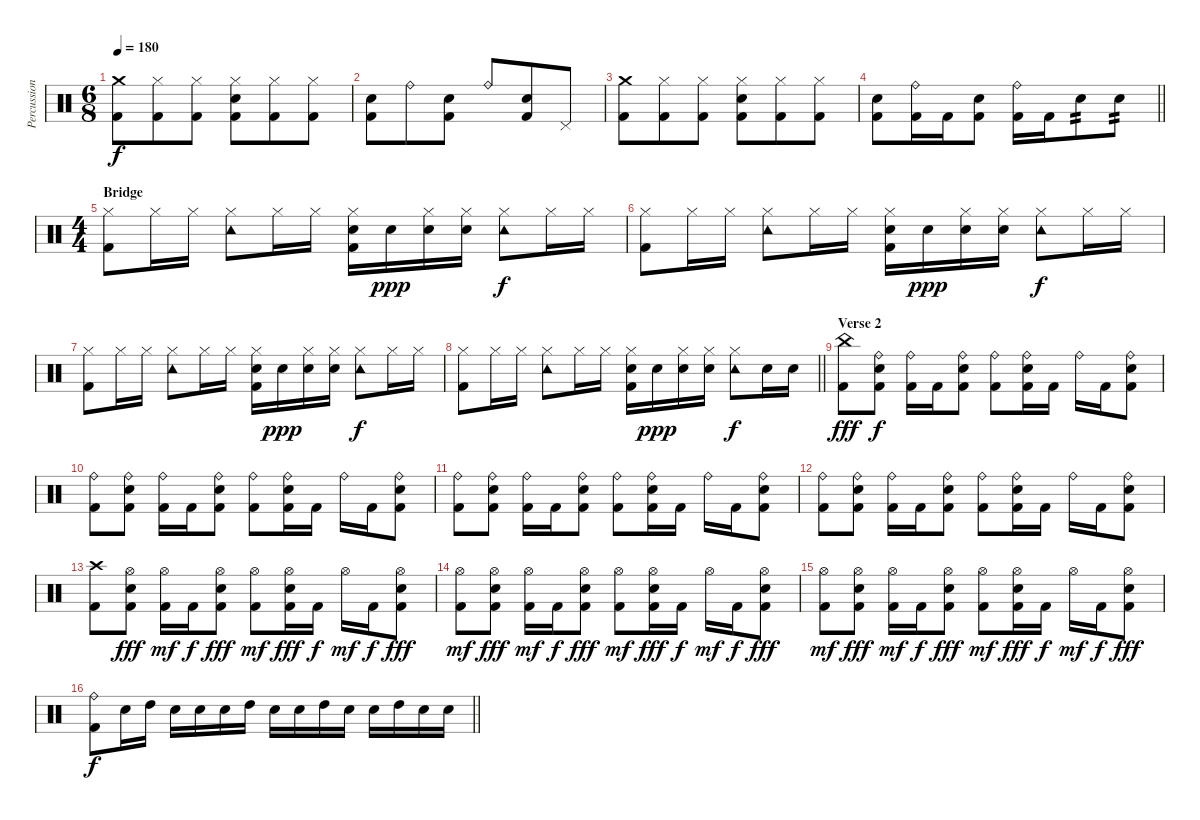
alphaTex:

\track ("Percussion" "Percussion") {instrument percussion}
\staff {score}
\articulation defaults
\ts (6 8)
\tempo 180
\clef neutral
\ks c
("Crash medium (hit)" "Kick (hit) 2").8{dy f} ("Hi-Hat (closed)" "Kick (hit) 2").8 ("Hi-Hat (closed)" "Kick (hit) 2").8 ("Hi-Hat (closed)" "Electric Snare (hit)" "Kick (hit) 2").8 ("Hi-Hat (closed)" "Kick (hit) 2").8 ("Hi-Hat (closed)" "Kick (hit) 2").8 |
("Hand Clap (hit)" "Kick (hit) 2").8 "Ride (bell)".8 ("Hand Clap (hit)" "Kick (hit) 2").8 "Ride (bell)".8 ("Hand Clap (hit)" "Kick (hit) 2").8 "Pedal Hi-Hat (hit)".8 |
("Crash medium (hit)" "Kick (hit) 2").8 ("Hi-Hat (closed)" "Kick (hit) 2").8 ("Hi-Hat (closed)" "Kick (hit) 2").8 ("Hi-Hat (closed)" "Electric Snare (hit)" "Kick (hit) 2").8 ("Hi-Hat (closed)" "Kick (hit) 2").8 ("Hi-Hat (closed)" "Kick (hit) 2").8 |
\barLineRight lightlight
("Hand Clap (hit)" "Kick (hit) 2").8 ("Ride (bell)" "Kick (hit) 2").16 "Kick (hit) 2".16 ("Hand Clap (hit)" "Kick (hit) 2").8 ("Ride (bell)" "Kick (hit) 2").16 "Kick (hit) 2".16 "Electric Snare (hit)".8{tp 2} "Electric Snare (hit)".8{tp 2} |
\ts (4 4)
\section ("" "Bridge")
("Hi-Hat (closed)" "Kick (hit) 2").8 "Hi-Hat (closed)".16 "Hi-Hat (closed)".16 ("Hi-Hat (closed)" "Tambourine (hit)").8 "Hi-Hat (closed)".16 "Hi-Hat (closed)".16 ("Hi-Hat (closed)" "Electric Snare (hit)" "Kick (hit) 2").16 "Electric Snare (hit)".16{dy ppp} ("Hi-Hat (closed)" "Electric Snare (hit)").16 ("Hi-Hat (closed)" "Electric Snare (hit)").16 ("Hi-Hat (closed)" "Tambourine (hit)").8{dy f} "Hi-Hat (closed)".16 "Hi-Hat (closed)".16 |
("Hi-Hat (closed)" "Kick (hit) 2").8 "Hi-Hat (closed)".16 "Hi-Hat (closed)".16 ("Hi-Hat (closed)" "Tambourine (hit)").8 "Hi-Hat (closed)".16 "Hi-Hat (closed)".16 ("Hi-Hat (closed)" "Electric Snare (hit)" "Kick (hit) 2").16 "Electric Snare (hit)".16{dy ppp} ("Hi-Hat (closed)" "Electric Snare (hit)").16 ("Hi-Hat (closed)" "Electric Snare (hit)").16 ("Hi-Hat (closed)" "Tambourine (hit)").8{dy f} "Hi-Hat (closed)".16 "Hi-Hat (closed)".16 |
("Hi-Hat (closed)" "Kick (hit) 2").8 "Hi-Hat (closed)".16 "Hi-Hat (closed)".16 ("Hi-Hat (closed)" "Tambourine (hit)").8 "Hi-Hat (closed)".16 "Hi-Hat (closed)".16 ("Hi-Hat (closed)" "Electric Snare (hit)" "Kick (hit) 2").16 "Electric Snare (hit)".16{dy ppp} ("Hi-Hat (closed)" "Electric Snare (hit)").16 ("Hi-Hat (closed)" "Electric Snare (hit)").16 ("Hi-Hat (closed)" "Tambourine (hit)").8{dy f} "Hi-Hat (closed)".16 "Hi-Hat (closed)".16 |
\barLineRight lightlight
("Hi-Hat (closed)" "Kick (hit) 2").8 "Hi-Hat (closed)".16 "Hi-Hat (closed)".16 ("Hi-Hat (closed)" "Tambourine (hit)").8 "Hi-Hat (closed)".16 "Hi-Hat (closed)".16 ("Hi-Hat (closed)" "Electric Snare (hit)" "Kick (hit) 2").16 "Electric Snare (hit)".16{dy ppp} ("Hi-Hat (closed)" "Electric Snare (hit)").16 ("Hi-Hat (closed)" "Electric Snare (hit)").16 ("Hi-Hat (closed)" "Tambourine (hit)").8{dy f} "Electric Snare (hit)".16 "Electric Snare (hit)".16 |
\section ("" "Verse 2")
("China (hit)" "Kick (hit) 2").8{dy fff} ("Ride (bell)" "Electric Snare (hit)" "Kick (hit) 2").8{dy f} ("Ride (bell)" "Kick (hit) 2").16 "Kick (hit) 2".16 ("Ride (bell)" "Electric Snare (hit)" "Kick (hit) 2").8 ("Ride (bell)" "Kick (hit) 2").8 ("Ride (bell)" "Electric Snare (hit)" "Kick (hit) 2").16 "Kick (hit) 2".16 "Ride (bell)".16 "Kick (hit) 2".16 ("Ride (bell)" "Electric Snare (hit)" "Kick (hit) 2").8 |
("Ride (bell)" "Kick (hit) 2").8 ("Ride (bell)" "Electric Snare (hit)" "Kick (hit) 2").8 ("Ride (bell)" "Kick (hit) 2").16 "Kick (hit) 2".16 ("Ride (bell)" "Electric Snare (hit)" "Kick (hit) 2").8 ("Ride (bell)" "Kick (hit) 2").8 ("Ride (bell)" "Electric Snare (hit)" "Kick (hit) 2").16 "Kick (hit) 2".16 "Ride (bell)".16 "Kick (hit) 2".16 ("Ride (bell)" "Electric Snare (hit)" "Kick (hit) 2").8 |
("Ride (bell)" "Kick (hit) 2").8 ("Ride (bell)" "Electric Snare (hit)" "Kick (hit) 2").8 ("Ride (bell)" "Kick (hit) 2").16 "Kick (hit) 2".16 ("Ride (bell)" "Electric Snare (hit)" "Kick (hit) 2").8 ("Ride (bell)" "Kick (hit) 2").8 ("Ride (bell)" "Electric Snare (hit)" "Kick (hit) 2").16 "Kick (hit) 2".16 "Ride (bell)".16 "Kick (hit) 2".16 ("Ride (bell)" "Electric Snare (hit)" "Kick (hit) 2").8 |
("Ride (bell)" "Kick (hit) 2").8 ("Ride (bell)" "Electric Snare (hit)" "Kick (hit) 2").8 ("Ride (bell)" "Kick (hit) 2").16 "Kick (hit) 2".16 ("Ride (bell)" "Electric Snare (hit)" "Kick (hit) 2").8 ("Ride (bell)" "Kick (hit) 2").8 ("Ride (bell)" "Electric Snare (hit)" "Kick (hit) 2").16 "Kick (hit) 2".16 "Ride (bell)".16 "Kick (hit) 2".16 ("Ride (bell)" "Electric Snare (hit)" "Kick (hit) 2").8 |
("Crash high (hit)" "Kick (hit) 2").8 ("Hi-Hat (open)" "Electric Snare (hit)" "Kick (hit) 2").8{dy fff} ("Hi-Hat (open)" "Kick (hit) 2").16{dy mf} "Kick (hit) 2".16{dy f} ("Hi-Hat (open)" "Electric Snare (hit)" "Kick (hit) 2").8{dy fff} ("Hi-Hat (open)" "Kick (hit) 2").8{dy mf} ("Hi-Hat (open)" "Electric Snare (hit)" "Kick (hit) 2").16{dy fff} "Kick (hit) 2".16{dy f} "Hi-Hat (open)".16{dy mf} "Kick (hit) 2".16{dy f} ("Hi-Hat (open)" "Electric Snare (hit)" "Kick (hit) 2").8{dy fff} |
("Hi-Hat (open)" "Kick (hit) 2").8{dy mf} ("Hi-Hat (open)" "Electric Snare (hit)" "Kick (hit) 2").8{dy fff} ("Hi-Hat (open)" "Kick (hit) 2").16{dy mf} "Kick (hit) 2".16{dy f} ("Hi-Hat (open)" "Electric Snare (hit)" "Kick (hit) 2").8{dy fff} ("Hi-Hat (open)" "Kick (hit) 2").8{dy mf} ("Hi-Hat (open)" "Electric Snare (hit)" "Kick (hit) 2").16{dy fff} "Kick (hit) 2".16{dy f} "Hi-Hat (open)".16{dy mf} "Kick (hit) 2".16{dy f} ("Hi-Hat (open)" "Electric Snare (hit)" "Kick (hit) 2").8{dy fff} |
("Hi-Hat (open)" "Kick (hit) 2").8{dy mf} ("Hi-Hat (open)" "Electric Snare (hit)" "Kick (hit) 2").8{dy fff} ("Hi-Hat (open)" "Kick (hit) 2").16{dy mf} "Kick (hit) 2".16{dy f} ("Hi-Hat (open)" "Electric Snare (hit)" "Kick (hit) 2").8{dy fff} ("Hi-Hat (open)" "Kick (hit) 2").8{dy mf} ("Hi-Hat (open)" "Electric Snare (hit)" "Kick (hit) 2").16{dy fff} "Kick (hit) 2".16{dy f} "Hi-Hat (open)".16{dy mf} "Kick (hit) 2".16{dy f} ("Hi-Hat (open)" "Electric Snare (hit)" "Kick (hit) 2").8{dy fff} |
\barLineRight lightlight
("Ride (bell)" "Kick (hit) 2").8{dy f} "Electric Snare (hit)".16 "High Tom (hit)".16 "Electric Snare (hit)".16 "Electric Snare (hit)".16 "Electric Snare (hit)".16 "High Tom (hit)".16 "Electric Snare (hit)".16 "Electric Snare (hit)".16 "High Tom (hit)".16 "Electric Snare (hit)".16 "Electric Snare (hit)".16 "High Tom (hit)".16 "Electric Snare (hit)".16 "Electric Snare (hit)".16
